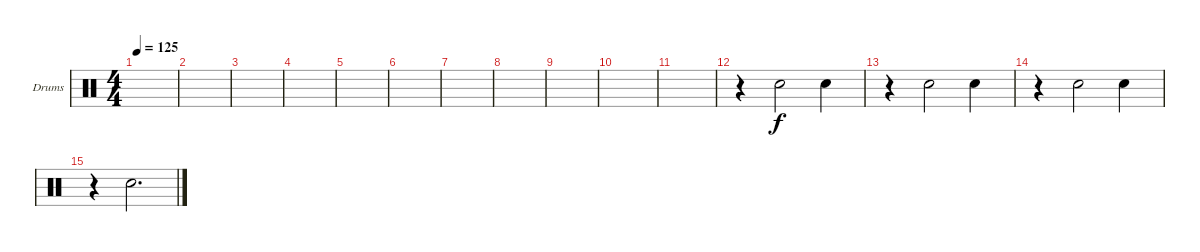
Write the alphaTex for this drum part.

\defaultSystemsLayout 4
\bracketExtendMode groupsimilarinstruments
\firstSystemTrackNameOrientation horizontal
\otherSystemsTrackNameOrientation horizontal
\track ("Drumkit" "Drums") {instrument percussion}
\staff {score}
\articulation defaults
\ts (4 4)
\tempo 125
\clef neutral
\scale
0.333333
\ks c
|
\scale
0.333333 |
\scale
0.333333 |
\scale
0.333333 |
\scale
0.333333 |
\scale
0.333333 |
\scale
0.333333 |
\scale
0.333333 |
\scale
0.333333 |
\scale
0.333333 |
\scale
0.333333 |
\scale
0.333333 r.4 "Snare (hit) 2".2 "Snare (hit) 2".4 |
\scale
0.333333 r.4 "Snare (hit) 2".2 "Snare (hit) 2".4 |
\scale
0.333333 r.4 "Snare (hit) 2".2 "Snare (hit) 2".4 |
\scale
0.333333 r.4 "Snare (hit) 2".2{d} |
\scale
0.333333
